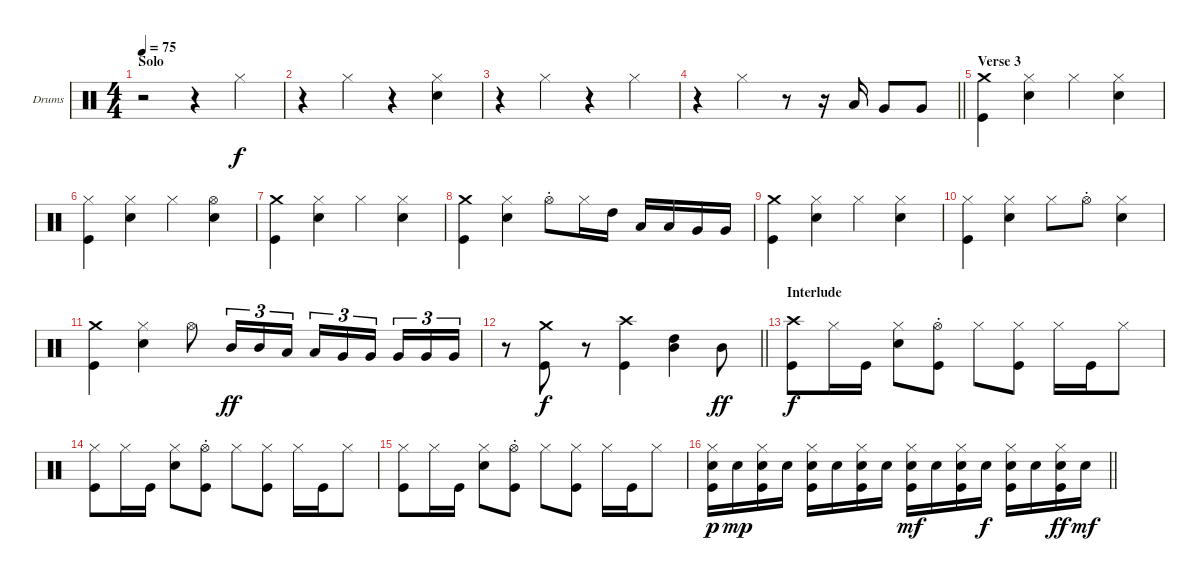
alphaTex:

\bracketExtendMode groupsimilarinstruments
\firstSystemTrackNameOrientation horizontal
\otherSystemsTrackNameOrientation horizontal
\track ("Drumkit" "Drums") {instrument percussion}
\staff {score}
\articulation defaults
\ts (4 4)
\section ("" "Solo")
\tempo 75
\clef neutral
\ks c
r.2{dy f} r.4 "Hi-Hat (closed)".4 |
r.4 "Hi-Hat (closed)".4 r.4 ("Hi-Hat (closed)" "Snare (hit) 2").4 |
r.4 "Hi-Hat (closed)".4 r.4 "Hi-Hat (closed)".4 |
\barLineRight lightlight
r.4 "Hi-Hat (closed)".4 r.8 r.16 "Low Tom (hit)".16 "Very Low Tom (hit)".8 "Very Low Tom (hit)".8 |
\section ("" "Verse 3")
("Crash medium (hit)" "Kick (hit)").4 ("Hi-Hat (closed)" "Snare (hit) 2").4 "Hi-Hat (closed)".4 ("Hi-Hat (closed)" "Snare (hit) 2").4 |
("Hi-Hat (closed)" "Kick (hit)").4 ("Hi-Hat (closed)" "Snare (hit) 2").4 "Hi-Hat (closed)".4 ("Hi-Hat (open)" "Snare (hit) 2").4 |
("Crash medium (hit)" "Kick (hit)").4 ("Hi-Hat (closed)" "Snare (hit) 2").4 "Hi-Hat (closed)".4 ("Hi-Hat (closed)" "Snare (hit) 2").4 |
("Crash medium (hit)" "Kick (hit)").4 ("Hi-Hat (closed)" "Snare (hit) 2").4 "Hi-Hat (open)"{st}.8 "Hi-Hat (closed)".16 "High Tom (hit)".16 "Low Tom (hit)".16 "Low Tom (hit)".16 "Very Low Tom (hit)".16 "Very Low Tom (hit)".16 |
("Crash medium (hit)" "Kick (hit)").4 ("Hi-Hat (closed)" "Snare (hit) 2").4 "Hi-Hat (closed)".4 ("Hi-Hat (closed)" "Snare (hit) 2").4 |
("Hi-Hat (closed)" "Kick (hit)").4 ("Hi-Hat (closed)" "Snare (hit) 2").4 "Hi-Hat (closed)".8 "Hi-Hat (open)"{st}.8 ("Hi-Hat (closed)" "Snare (hit) 2").4 |
("Crash medium (hit)" "Kick (hit)").4 ("Hi-Hat (closed)" "Snare (hit) 2").4 "Hi-Hat (open)".8 "Mid Tom (hit)".16{tu (3 2) dy ff} "Mid Tom (hit)".16{tu (3 2)} "Low Tom (hit)".16{tu (3 2)} "Low Tom (hit)".16{tu (3 2)} "Very Low Tom (hit)".16{tu (3 2)} "Very Low Tom (hit)".16{tu (3 2)} "Very Low Tom (hit)".16{tu (3 2)} "Very Low Tom (hit)".16{tu (3 2)} "Very Low Tom (hit)".16{tu (3 2)} |
\barLineRight lightlight
r.8 ("Crash medium (hit)" "Kick (hit)").8{dy f} r.8 ("Crash high (hit)" "Kick (hit)").4 ("High Tom (hit)" "Mid Tom (hit)").4 "Mid Tom (hit)".8{dy ff} |
\section ("" "Interlude")
("Crash high (hit)" "Kick (hit)").8{dy f} "Hi-Hat (closed)".16 "Kick (hit)".16 ("Hi-Hat (closed)" "Snare (hit) 2").8 ("Hi-Hat (open)"{st} "Kick (hit)").8 "Hi-Hat (closed)".8 ("Hi-Hat (closed)" "Kick (hit)").8 "Hi-Hat (closed)".16 "Kick (hit)".16 "Hi-Hat (closed)".8 |
("Hi-Hat (closed)" "Kick (hit)").8 "Hi-Hat (closed)".16 "Kick (hit)".16 ("Hi-Hat (closed)" "Snare (hit) 2").8 ("Hi-Hat (open)"{st} "Kick (hit)").8 "Hi-Hat (closed)".8 ("Hi-Hat (closed)" "Kick (hit)").8 "Hi-Hat (closed)".16 "Kick (hit)".16 "Hi-Hat (closed)".8 |
("Hi-Hat (closed)" "Kick (hit)").8 "Hi-Hat (closed)".16 "Kick (hit)".16 ("Hi-Hat (closed)" "Snare (hit) 2").8 ("Hi-Hat (open)"{st} "Kick (hit)").8 "Hi-Hat (closed)".8 ("Hi-Hat (closed)" "Kick (hit)").8 "Hi-Hat (closed)".16 "Kick (hit)".16 "Hi-Hat (closed)".8 |
\barLineRight lightlight
("Snare (hit) 2" "Kick (hit)" "Hi-Hat (closed)").16{dy p} "Snare (hit) 2".16{dy mp} ("Snare (hit) 2" "Kick (hit)" "Hi-Hat (closed)").16 "Snare (hit) 2".16 ("Snare (hit) 2" "Kick (hit)" "Hi-Hat (closed)").16 "Snare (hit) 2".16 ("Snare (hit) 2" "Kick (hit)" "Hi-Hat (closed)").16 "Snare (hit) 2".16 ("Snare (hit) 2" "Kick (hit)" "Hi-Hat (closed)").16{dy mf} "Snare (hit) 2".16 ("Snare (hit) 2" "Kick (hit)" "Hi-Hat (closed)").16 "Snare (hit) 2".16{dy f} ("Snare (hit) 2" "Kick (hit)" "Hi-Hat (closed)").16 "Snare (hit) 2".16 ("Snare (hit) 2" "Kick (hit)" "Hi-Hat (closed)").16{dy ff} "Snare (hit) 2".16{dy mf}
